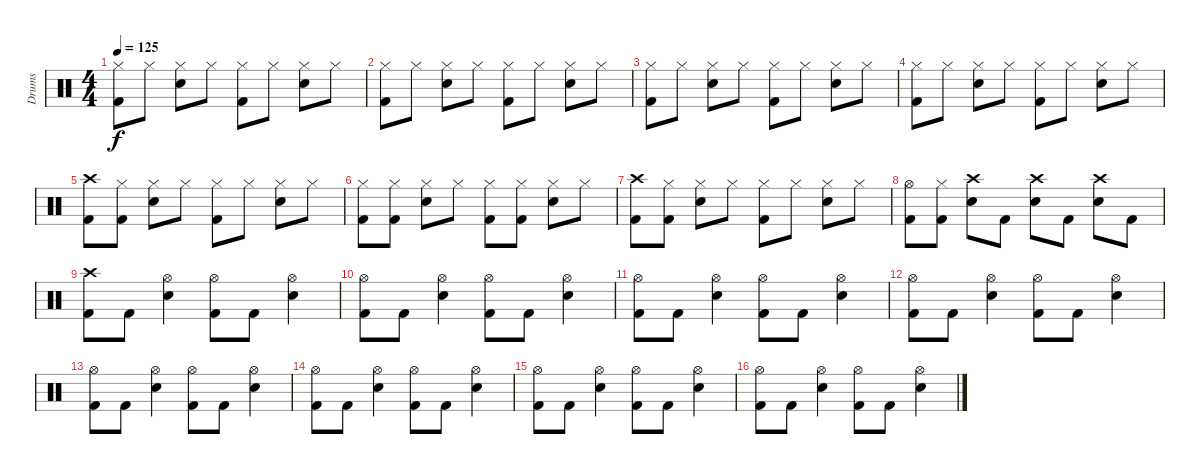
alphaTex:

\track ("Drums" "Drums") {instrument percussion}
\staff {score}
\articulation defaults
\ts (4 4)
\tempo 125
\clef neutral
\ks c
("Hi-Hat (closed)" "Kick (hit) 2").8{dy f} "Hi-Hat (closed)".8 ("Hi-Hat (closed)" "Snare (hit) 2").8 "Hi-Hat (closed)".8 ("Hi-Hat (closed)" "Kick (hit) 2").8 "Hi-Hat (closed)".8 ("Hi-Hat (closed)" "Snare (hit) 2").8 "Hi-Hat (closed)".8 |
("Hi-Hat (closed)" "Kick (hit) 2").8 "Hi-Hat (closed)".8 ("Hi-Hat (closed)" "Snare (hit) 2").8 "Hi-Hat (closed)".8 ("Hi-Hat (closed)" "Kick (hit) 2").8 "Hi-Hat (closed)".8 ("Hi-Hat (closed)" "Snare (hit) 2").8 "Hi-Hat (closed)".8 |
("Hi-Hat (closed)" "Kick (hit) 2").8 "Hi-Hat (closed)".8 ("Hi-Hat (closed)" "Snare (hit) 2").8 "Hi-Hat (closed)".8 ("Hi-Hat (closed)" "Kick (hit) 2").8 "Hi-Hat (closed)".8 ("Hi-Hat (closed)" "Snare (hit) 2").8 "Hi-Hat (closed)".8 |
("Hi-Hat (closed)" "Kick (hit) 2").8 "Hi-Hat (closed)".8 ("Hi-Hat (closed)" "Snare (hit) 2").8 "Hi-Hat (closed)".8 ("Hi-Hat (closed)" "Kick (hit) 2").8 "Hi-Hat (closed)".8 ("Hi-Hat (closed)" "Snare (hit) 2").8 "Hi-Hat (closed)".8 |
("Crash high (hit)" "Kick (hit) 2").8 ("Hi-Hat (closed)" "Kick (hit) 2").8 ("Hi-Hat (closed)" "Snare (hit) 2").8 "Hi-Hat (closed)".8 ("Hi-Hat (closed)" "Kick (hit) 2").8 "Hi-Hat (closed)".8 ("Hi-Hat (closed)" "Snare (hit) 2").8 "Hi-Hat (closed)".8 |
("Hi-Hat (closed)" "Kick (hit) 2").8 ("Hi-Hat (closed)" "Kick (hit) 2").8 ("Hi-Hat (closed)" "Snare (hit) 2").8 "Hi-Hat (closed)".8 ("Hi-Hat (closed)" "Kick (hit) 2").8 ("Hi-Hat (closed)" "Kick (hit) 2").8 ("Hi-Hat (closed)" "Snare (hit) 2").8 "Hi-Hat (closed)".8 |
("Crash high (hit)" "Kick (hit) 2").8 ("Hi-Hat (closed)" "Kick (hit) 2").8 ("Hi-Hat (closed)" "Snare (hit) 2").8 "Hi-Hat (closed)".8 ("Hi-Hat (closed)" "Kick (hit) 2").8 "Hi-Hat (closed)".8 ("Hi-Hat (closed)" "Snare (hit) 2").8 "Hi-Hat (closed)".8 |
("Hi-Hat (open)" "Kick (hit) 2").8 ("Hi-Hat (closed)" "Kick (hit) 2").8 ("Crash high (hit)" "Snare (hit) 2").8 "Kick (hit) 2".8 ("Crash high (hit)" "Snare (hit) 2").8 "Kick (hit) 2".8 ("Crash high (hit)" "Snare (hit) 2").8 "Kick (hit) 2".8 |
("Crash high (hit)" "Kick (hit) 2").8 "Kick (hit) 2".8 ("Hi-Hat (open)" "Snare (hit) 2").4 ("Hi-Hat (open)" "Kick (hit) 2").8 "Kick (hit) 2".8 ("Hi-Hat (open)" "Snare (hit) 2").4 |
("Hi-Hat (open)" "Kick (hit) 2").8 "Kick (hit) 2".8 ("Hi-Hat (open)" "Snare (hit) 2").4 ("Hi-Hat (open)" "Kick (hit) 2").8 "Kick (hit) 2".8 ("Hi-Hat (open)" "Snare (hit) 2").4 |
("Hi-Hat (open)" "Kick (hit) 2").8 "Kick (hit) 2".8 ("Hi-Hat (open)" "Snare (hit) 2").4 ("Hi-Hat (open)" "Kick (hit) 2").8 "Kick (hit) 2".8 ("Hi-Hat (open)" "Snare (hit) 2").4 |
("Hi-Hat (open)" "Kick (hit) 2").8 "Kick (hit) 2".8 ("Hi-Hat (open)" "Snare (hit) 2").4 ("Hi-Hat (open)" "Kick (hit) 2").8 "Kick (hit) 2".8 ("Hi-Hat (open)" "Snare (hit) 2").4 |
("Hi-Hat (open)" "Kick (hit) 2").8 "Kick (hit) 2".8 ("Hi-Hat (open)" "Snare (hit) 2").4 ("Hi-Hat (open)" "Kick (hit) 2").8 "Kick (hit) 2".8 ("Hi-Hat (open)" "Snare (hit) 2").4 |
("Hi-Hat (open)" "Kick (hit) 2").8 "Kick (hit) 2".8 ("Hi-Hat (open)" "Snare (hit) 2").4 ("Hi-Hat (open)" "Kick (hit) 2").8 "Kick (hit) 2".8 ("Hi-Hat (open)" "Snare (hit) 2").4 |
("Hi-Hat (open)" "Kick (hit) 2").8 "Kick (hit) 2".8 ("Hi-Hat (open)" "Snare (hit) 2").4 ("Hi-Hat (open)" "Kick (hit) 2").8 "Kick (hit) 2".8 ("Hi-Hat (open)" "Snare (hit) 2").4 |
("Hi-Hat (open)" "Kick (hit) 2").8 "Kick (hit) 2".8 ("Hi-Hat (open)" "Snare (hit) 2").4 ("Hi-Hat (open)" "Kick (hit) 2").8 "Kick (hit) 2".8 ("Hi-Hat (open)" "Snare (hit) 2").4
